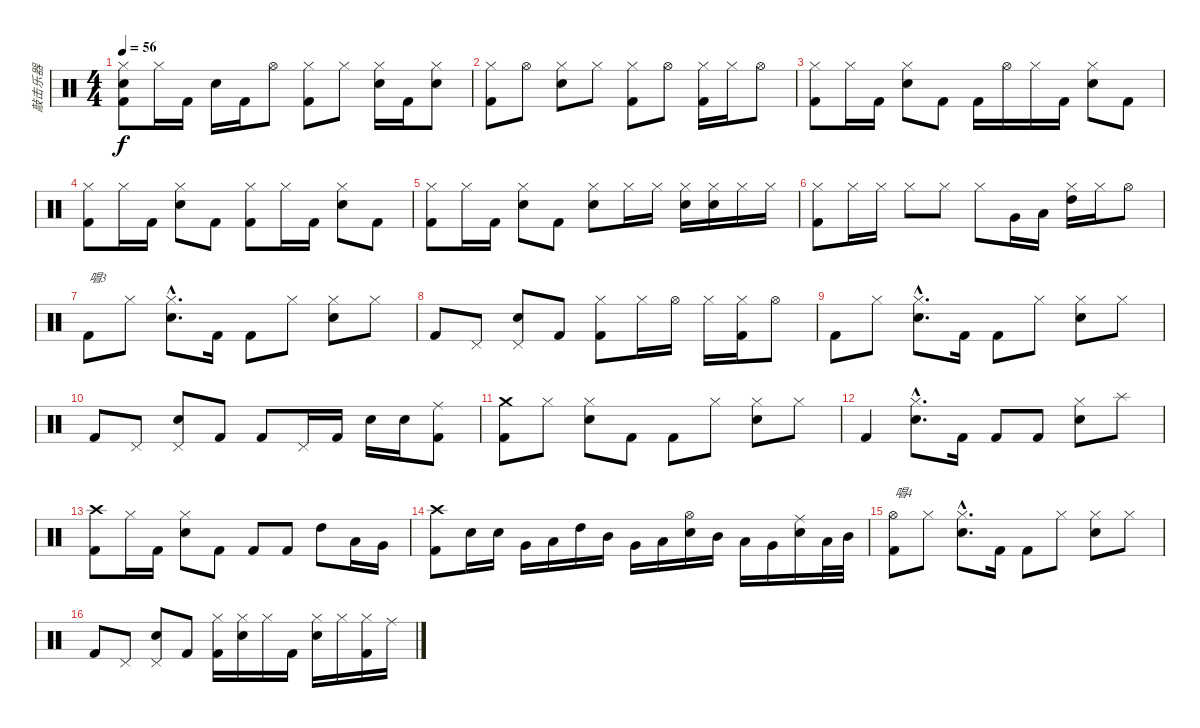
\track ("敲击乐器" "敲击乐器") {instrument percussion}
\staff {score}
\articulation defaults
\ts (4 4)
\tempo 56
\clef neutral
\ks c
("Electric Snare (hit)" "Hi-Hat (closed)" "Kick (hit) 2").8{dy f} "Hi-Hat (closed)".16 "Kick (hit) 2".16 "Electric Snare (hit)".16 "Kick (hit) 2".16 "Hi-Hat (open)".8 ("Hi-Hat (closed)" "Kick (hit) 2").8 "Hi-Hat (closed)".8 ("Hi-Hat (closed)" "Electric Snare (hit)").16 "Kick (hit) 2".16 ("Hi-Hat (closed)" "Electric Snare (hit)").8 |
("Hi-Hat (closed)" "Kick (hit) 2").8 "Hi-Hat (open)".8 ("Electric Snare (hit)" "Hi-Hat (closed)").8 "Hi-Hat (closed)".8 ("Hi-Hat (closed)" "Kick (hit) 2").8 "Hi-Hat (open)".8 ("Hi-Hat (closed)" "Kick (hit) 2").16 "Hi-Hat (closed)".16 "Hi-Hat (open)".8 |
("Hi-Hat (closed)" "Kick (hit) 2").8 "Hi-Hat (closed)".16 "Kick (hit) 2".16 ("Hi-Hat (closed)" "Electric Snare (hit)").8 "Kick (hit) 2".8 "Kick (hit) 2".16 "Hi-Hat (open)".16 "Hi-Hat (closed)".16 "Kick (hit) 2".16 ("Hi-Hat (closed)" "Electric Snare (hit)").8 "Kick (hit) 2".8 |
("Hi-Hat (closed)" "Kick (hit) 2").8 "Hi-Hat (closed)".16 "Kick (hit) 2".16 ("Hi-Hat (closed)" "Electric Snare (hit)").8 "Kick (hit) 2".8 ("Hi-Hat (closed)" "Kick (hit) 2").8 "Hi-Hat (closed)".16 "Kick (hit) 2".16 ("Hi-Hat (closed)" "Electric Snare (hit)").8 "Kick (hit) 2".8 |
("Hi-Hat (closed)" "Kick (hit) 2").8 "Hi-Hat (closed)".16 "Kick (hit) 2".16 ("Hi-Hat (closed)" "Electric Snare (hit)").8 "Kick (hit) 2".8 ("Hi-Hat (closed)" "Electric Snare (hit)").8 "Hi-Hat (closed)".16 "Hi-Hat (closed)".16 ("Hi-Hat (closed)" "Electric Snare (hit)").16 ("Hi-Hat (closed)" "Electric Snare (hit)").16 "Hi-Hat (closed)".16 "Hi-Hat (closed)".16 |
("Hi-Hat (closed)" "Kick (hit) 2").8 "Hi-Hat (closed)".16 "Hi-Hat (closed)".16 "Hi-Hat (closed)".8 "Hi-Hat (closed)".8 "Hi-Hat (closed)".8 "Very Low Tom (hit)".16 "Low Tom (hit)".16 ("Hi-Hat (closed)" "High Tom (hit)").16 "Hi-Hat (closed)".16 "Hi-Hat (open)".8 |
"Kick (hit) 2".8{txt "唱3"} "Hi-Hat (closed)".8 ("Hi-Hat (closed)"{hac} "Electric Snare (hit)"{hac}).8{d} "Kick (hit) 2".16 "Kick (hit) 2".8 "Hi-Hat (closed)".8 ("Hi-Hat (closed)" "Electric Snare (hit)").8 "Hi-Hat (closed)".8 |
"Kick (hit) 2".8 "Pedal Hi-Hat (hit)".8 ("Pedal Hi-Hat (hit)" "Electric Snare (hit)").8 "Kick (hit) 2".8 ("Hi-Hat (closed)" "Kick (hit) 2").8 "Hi-Hat (closed)".16 "Hi-Hat (open)".16 "Hi-Hat (closed)".16 ("Hi-Hat (closed)" "Kick (hit) 2").16{volume 16} "Hi-Hat (open)".8 |
"Kick (hit) 2".8 "Hi-Hat (closed)".8 ("Hi-Hat (closed)"{hac} "Electric Snare (hit)"{hac}).8{d} "Kick (hit) 2".16 "Kick (hit) 2".8 "Hi-Hat (closed)".8 ("Hi-Hat (closed)" "Electric Snare (hit)").8 "Hi-Hat (closed)".8 |
"Kick (hit) 2".8 "Pedal Hi-Hat (hit)".8 ("Pedal Hi-Hat (hit)" "Electric Snare (hit)").8 "Kick (hit) 2".8 "Kick (hit) 2".8 "Pedal Hi-Hat (hit)".16 "Kick (hit) 2".16 "Electric Snare (hit)".16 "Electric Snare (hit)".16 ("Ride (middle)" "Kick (hit) 2").8 |
("Crash medium (hit)" "Kick (hit) 2").8 "Hi-Hat (closed)".8 ("Hi-Hat (closed)" "Electric Snare (hit)").8 "Kick (hit) 2".8 "Kick (hit) 2".8 "Hi-Hat (closed)".8 ("Hi-Hat (closed)" "Electric Snare (hit)").8 "Hi-Hat (closed)".8 |
"Kick (hit) 2".4 ("Hi-Hat (closed)"{hac} "Electric Snare (hit)").8{d} "Kick (hit) 2".16 "Kick (hit) 2".8 "Kick (hit) 2".8 ("Hi-Hat (closed)" "Electric Snare (hit)").8 "Splash (hit)".8{volume 5} |
("Crash high (hit)" "Kick (hit) 2").8{volume 16} "Hi-Hat (closed)".16{volume 16} "Kick (hit) 2".16 ("Hi-Hat (closed)" "Electric Snare (hit)").8 "Kick (hit) 2".8 "Kick (hit) 2".8 "Kick (hit) 2".8 "High Tom (hit)".8 "Low Tom (hit)".16 "Very Low Tom (hit)".16 |
("Crash high (hit)" "Kick (hit) 2").8 "Electric Snare (hit)".16 "Electric Snare (hit)".16 "Very Low Tom (hit)".16 "Low Tom (hit)".16 "High Tom (hit)".16 "Mid Tom (hit)".16 "Very Low Tom (hit)".16 "Low Tom (hit)".16 ("Hi-Hat (open)" "Electric Snare (hit)").16 "Mid Tom (hit)".16 "Low Tom (hit)".16 "Very Low Tom (hit)".16 ("Ride (middle)" "Electric Snare (hit)").16 "Low Tom (hit)".32 "Mid Tom (hit)".32 |
("Hi-Hat (open)" "Kick (hit) 2").8{txt "唱4"} "Hi-Hat (closed)".8 ("Hi-Hat (closed)"{hac} "Electric Snare (hit)"{hac}).8{d} "Kick (hit) 2".16 "Kick (hit) 2".8 "Hi-Hat (closed)".8 ("Hi-Hat (closed)" "Electric Snare (hit)").8 "Hi-Hat (closed)".8 |
"Kick (hit) 2".8 "Pedal Hi-Hat (hit)".8 ("Pedal Hi-Hat (hit)" "Electric Snare (hit)").8 "Kick (hit) 2".8 ("Hi-Hat (closed)" "Kick (hit) 2").16 ("Hi-Hat (closed)" "Electric Snare (hit)").16 "Hi-Hat (closed)".16 "Kick (hit) 2".16 ("Hi-Hat (closed)" "Electric Snare (hit)").16 "Hi-Hat (closed)".16 ("Hi-Hat (closed)" "Kick (hit) 2").16{volume 16} "Ride (middle)".16
